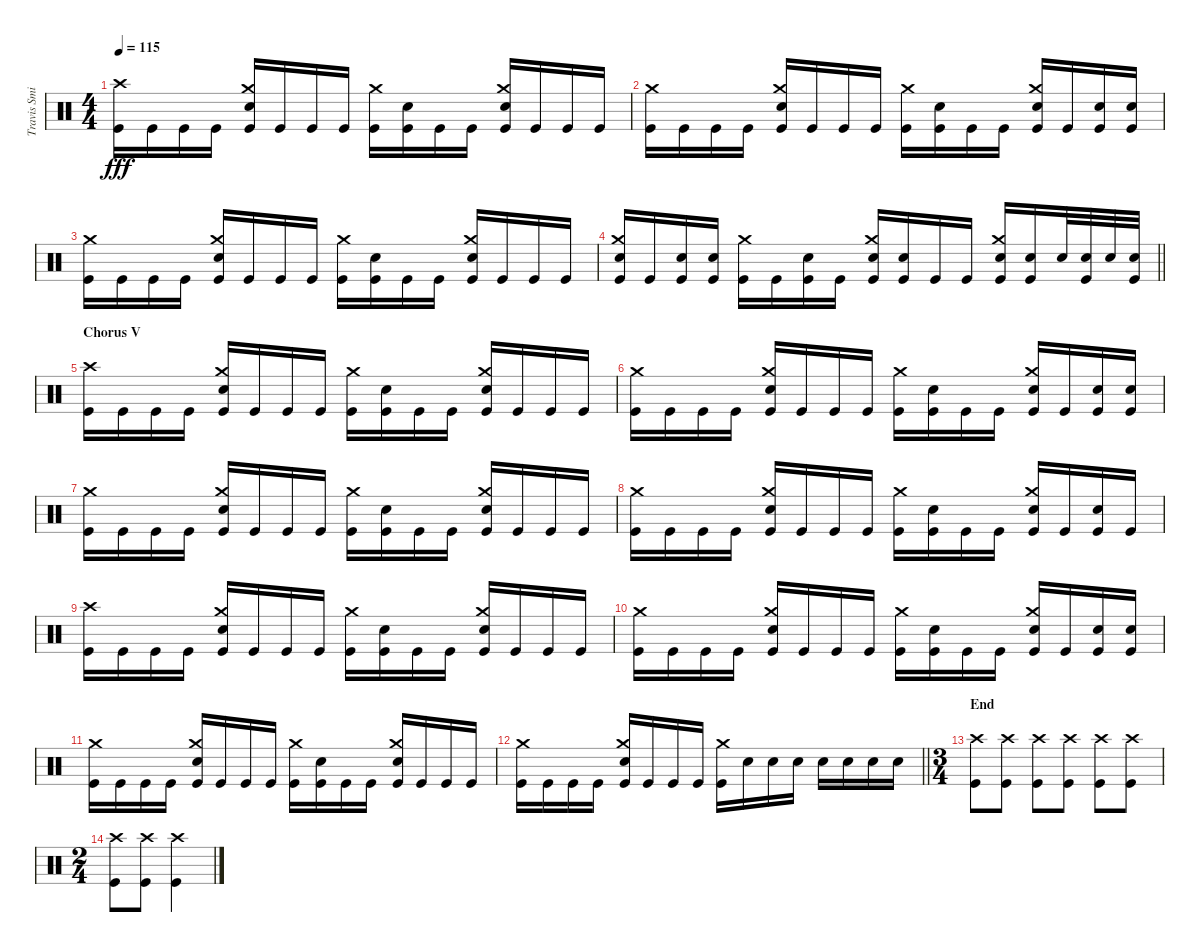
\track ("Travis Smith" "Travis Smi") {instrument percussion}
\staff {score}
\articulation defaults
\ts (4 4)
\tempo 115
\clef neutral
\ks c
("Crash high (hit)" "Kick (hit)").16{dy fff} "Kick (hit)".16 "Kick (hit)".16 "Kick (hit)".16 ("Crash medium (hit)" "Snare (hit) 2" "Kick (hit)").16 "Kick (hit)".16 "Kick (hit)".16 "Kick (hit)".16 ("Crash medium (hit)" "Kick (hit)").16 ("Snare (hit) 2" "Kick (hit)").16 "Kick (hit)".16 "Kick (hit)".16 ("Crash medium (hit)" "Snare (hit) 2" "Kick (hit)").16 "Kick (hit)".16 "Kick (hit)".16 "Kick (hit)".16 |
("Crash medium (hit)" "Kick (hit)").16 "Kick (hit)".16 "Kick (hit)".16 "Kick (hit)".16 ("Crash medium (hit)" "Snare (hit) 2" "Kick (hit)").16 "Kick (hit)".16 "Kick (hit)".16 "Kick (hit)".16 ("Crash medium (hit)" "Kick (hit)").16 ("Snare (hit) 2" "Kick (hit)").16 "Kick (hit)".16 "Kick (hit)".16 ("Crash medium (hit)" "Snare (hit) 2" "Kick (hit)").16 "Kick (hit)".16 ("Snare (hit) 2" "Kick (hit)").16 ("Snare (hit) 2" "Kick (hit)").16 |
("Crash medium (hit)" "Kick (hit)").16 "Kick (hit)".16 "Kick (hit)".16 "Kick (hit)".16 ("Crash medium (hit)" "Snare (hit) 2" "Kick (hit)").16 "Kick (hit)".16 "Kick (hit)".16 "Kick (hit)".16 ("Crash medium (hit)" "Kick (hit)").16 ("Snare (hit) 2" "Kick (hit)").16 "Kick (hit)".16 "Kick (hit)".16 ("Crash medium (hit)" "Snare (hit) 2" "Kick (hit)").16 "Kick (hit)".16 "Kick (hit)".16 "Kick (hit)".16 |
\barLineRight lightlight
("Crash medium (hit)" "Snare (hit) 2" "Kick (hit)").16 "Kick (hit)".16 ("Snare (hit) 2" "Kick (hit)").16 ("Snare (hit) 2" "Kick (hit)").16 ("Crash medium (hit)" "Kick (hit)").16 "Kick (hit)".16 ("Snare (hit) 2" "Kick (hit)").16 "Kick (hit)".16 ("Crash medium (hit)" "Snare (hit) 2" "Kick (hit)").16 ("Snare (hit) 2" "Kick (hit)").16 "Kick (hit)".16 "Kick (hit)".16 ("Crash medium (hit)" "Snare (hit) 2" "Kick (hit)").16 ("Snare (hit) 2" "Kick (hit)").16 "Snare (hit) 2".32 ("Snare (hit) 2" "Kick (hit)").32 "Snare (hit) 2".32 ("Snare (hit) 2" "Kick (hit)").32 |
\section ("" "Chorus V")
("Crash high (hit)" "Kick (hit)").16 "Kick (hit)".16 "Kick (hit)".16 "Kick (hit)".16 ("Crash medium (hit)" "Snare (hit) 2" "Kick (hit)").16 "Kick (hit)".16 "Kick (hit)".16 "Kick (hit)".16 ("Crash medium (hit)" "Kick (hit)").16 ("Snare (hit) 2" "Kick (hit)").16 "Kick (hit)".16 "Kick (hit)".16 ("Crash medium (hit)" "Snare (hit) 2" "Kick (hit)").16 "Kick (hit)".16 "Kick (hit)".16 "Kick (hit)".16 |
("Crash medium (hit)" "Kick (hit)").16 "Kick (hit)".16 "Kick (hit)".16 "Kick (hit)".16 ("Crash medium (hit)" "Snare (hit) 2" "Kick (hit)").16 "Kick (hit)".16 "Kick (hit)".16 "Kick (hit)".16 ("Crash medium (hit)" "Kick (hit)").16 ("Snare (hit) 2" "Kick (hit)").16 "Kick (hit)".16 "Kick (hit)".16 ("Crash medium (hit)" "Snare (hit) 2" "Kick (hit)").16 "Kick (hit)".16 ("Snare (hit) 2" "Kick (hit)").16 ("Snare (hit) 2" "Kick (hit)").16 |
("Crash medium (hit)" "Kick (hit)").16 "Kick (hit)".16 "Kick (hit)".16 "Kick (hit)".16 ("Crash medium (hit)" "Snare (hit) 2" "Kick (hit)").16 "Kick (hit)".16 "Kick (hit)".16 "Kick (hit)".16 ("Crash medium (hit)" "Kick (hit)").16 ("Snare (hit) 2" "Kick (hit)").16 "Kick (hit)".16 "Kick (hit)".16 ("Crash medium (hit)" "Snare (hit) 2" "Kick (hit)").16 "Kick (hit)".16 "Kick (hit)".16 "Kick (hit)".16 |
("Crash medium (hit)" "Kick (hit)").16 "Kick (hit)".16 "Kick (hit)".16 "Kick (hit)".16 ("Crash medium (hit)" "Snare (hit) 2" "Kick (hit)").16 "Kick (hit)".16 "Kick (hit)".16 "Kick (hit)".16 ("Crash medium (hit)" "Kick (hit)").16 ("Snare (hit) 2" "Kick (hit)").16 "Kick (hit)".16 "Kick (hit)".16 ("Crash medium (hit)" "Snare (hit) 2" "Kick (hit)").16 "Kick (hit)".16 ("Snare (hit) 2" "Kick (hit)").16 "Kick (hit)".16 |
("Crash high (hit)" "Kick (hit)").16 "Kick (hit)".16 "Kick (hit)".16 "Kick (hit)".16 ("Crash medium (hit)" "Snare (hit) 2" "Kick (hit)").16 "Kick (hit)".16 "Kick (hit)".16 "Kick (hit)".16 ("Crash medium (hit)" "Kick (hit)").16 ("Snare (hit) 2" "Kick (hit)").16 "Kick (hit)".16 "Kick (hit)".16 ("Crash medium (hit)" "Snare (hit) 2" "Kick (hit)").16 "Kick (hit)".16 "Kick (hit)".16 "Kick (hit)".16 |
("Crash medium (hit)" "Kick (hit)").16 "Kick (hit)".16 "Kick (hit)".16 "Kick (hit)".16 ("Crash medium (hit)" "Snare (hit) 2" "Kick (hit)").16 "Kick (hit)".16 "Kick (hit)".16 "Kick (hit)".16 ("Crash medium (hit)" "Kick (hit)").16 ("Snare (hit) 2" "Kick (hit)").16 "Kick (hit)".16 "Kick (hit)".16 ("Crash medium (hit)" "Snare (hit) 2" "Kick (hit)").16 "Kick (hit)".16 ("Snare (hit) 2" "Kick (hit)").16 ("Snare (hit) 2" "Kick (hit)").16 |
("Crash medium (hit)" "Kick (hit)").16 "Kick (hit)".16 "Kick (hit)".16 "Kick (hit)".16 ("Crash medium (hit)" "Snare (hit) 2" "Kick (hit)").16 "Kick (hit)".16 "Kick (hit)".16 "Kick (hit)".16 ("Crash medium (hit)" "Kick (hit)").16 ("Snare (hit) 2" "Kick (hit)").16 "Kick (hit)".16 "Kick (hit)".16 ("Crash medium (hit)" "Snare (hit) 2" "Kick (hit)").16 "Kick (hit)".16 "Kick (hit)".16 "Kick (hit)".16 |
\barLineRight lightlight
("Crash medium (hit)" "Kick (hit)").16 "Kick (hit)".16 "Kick (hit)".16 "Kick (hit)".16 ("Crash medium (hit)" "Snare (hit) 2" "Kick (hit)").16 "Kick (hit)".16 "Kick (hit)".16 "Kick (hit)".16 ("Crash medium (hit)" "Kick (hit)").16 "Snare (hit) 2".16 "Snare (hit) 2".16 "Snare (hit) 2".16 "Snare (hit) 2".16 "Snare (hit) 2".16 "Snare (hit) 2".16 "Snare (hit) 2".16 |
\ts (3 4)
\section ("" "End")
("Crash high (hit)" "Kick (hit)").8 ("Crash high (hit)" "Kick (hit)").8 ("Crash high (hit)" "Kick (hit)").8 ("Crash high (hit)" "Kick (hit)").8 ("Crash high (hit)" "Kick (hit)").8 ("Crash high (hit)" "Kick (hit)").8 |
\ts (2 4)
("Crash high (hit)" "Kick (hit)").8 ("Crash high (hit)" "Kick (hit)").8 ("Crash high (hit)" "Kick (hit)").4
